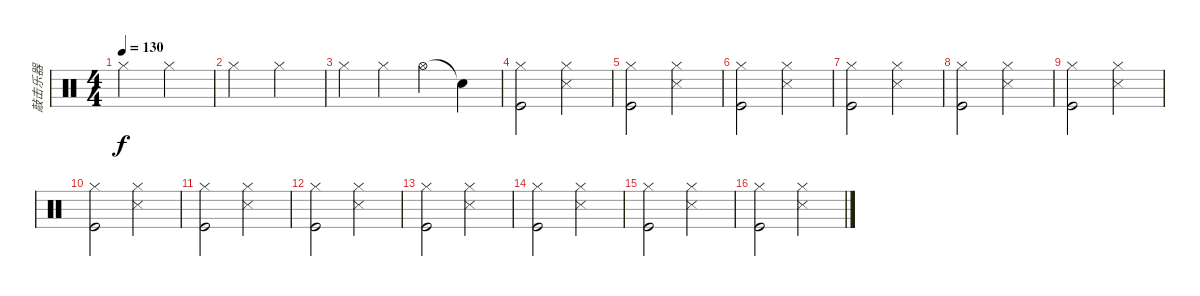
\track ("敲击乐器" "敲击乐器") {instrument percussion}
\staff {score}
\articulation defaults
\ts (4 4)
\tempo 130
\clef neutral
\ks c "Hi-Hat (closed)".2{dy f} "Hi-Hat (closed)".2
|
"Hi-Hat (closed)".2 "Hi-Hat (closed)".2 |
"Hi-Hat (closed)".4 "Hi-Hat (closed)".4 "Hi-Hat (open)".4 "Snare (hit)"{t}.4 |
("Hi-Hat (closed)" "Kick (hit)").2 ("Hi-Hat (closed)" "Snare (side stick) 3").2 |
("Hi-Hat (closed)" "Kick (hit)").2 ("Hi-Hat (closed)" "Snare (side stick) 3").2 |
("Hi-Hat (closed)" "Kick (hit)").2 ("Hi-Hat (closed)" "Snare (side stick) 3").2 |
("Hi-Hat (closed)" "Kick (hit)").2 ("Hi-Hat (closed)" "Snare (side stick) 3").2 |
("Hi-Hat (closed)" "Kick (hit)").2 ("Hi-Hat (closed)" "Snare (side stick) 3").2 |
("Hi-Hat (closed)" "Kick (hit)").2 ("Hi-Hat (closed)" "Snare (side stick) 3").2 |
("Hi-Hat (closed)" "Kick (hit)").2 ("Hi-Hat (closed)" "Snare (side stick) 3").2 |
("Hi-Hat (closed)" "Kick (hit)").2 ("Hi-Hat (closed)" "Snare (side stick) 3").2 |
("Hi-Hat (closed)" "Kick (hit)").2 ("Hi-Hat (closed)" "Snare (side stick) 3").2 |
("Hi-Hat (closed)" "Kick (hit)").2 ("Hi-Hat (closed)" "Snare (side stick) 3").2 |
("Hi-Hat (closed)" "Kick (hit)").2 ("Hi-Hat (closed)" "Snare (side stick) 3").2 |
("Hi-Hat (closed)" "Kick (hit)").2 ("Hi-Hat (closed)" "Snare (side stick) 3").2 |
("Hi-Hat (closed)" "Kick (hit)").2 ("Hi-Hat (closed)" "Snare (side stick) 3").2
